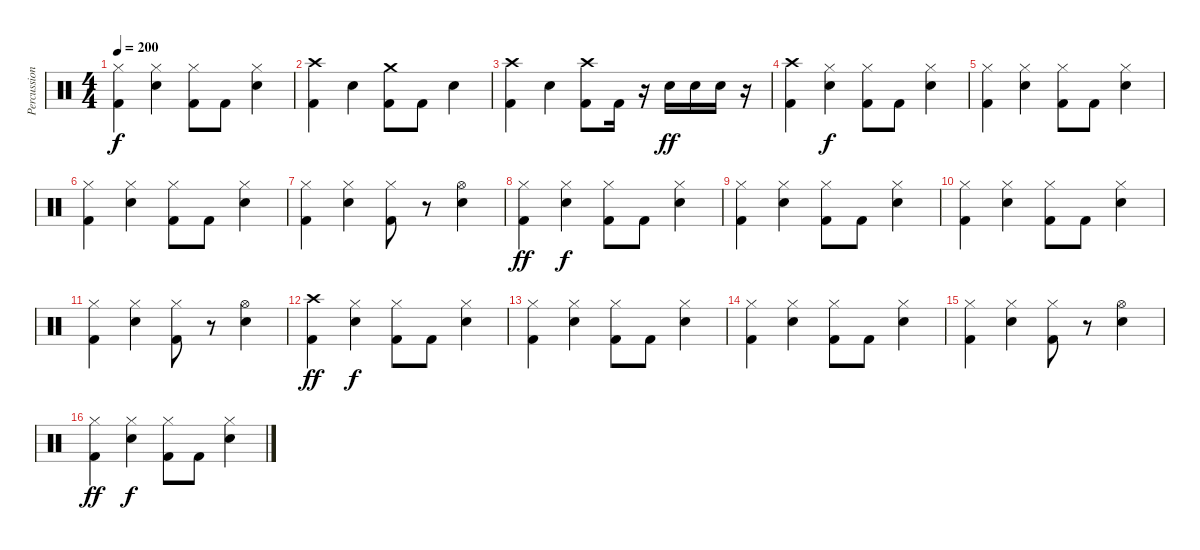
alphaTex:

\track ("Percussion" "Percussion") {instrument percussion}
\staff {score}
\articulation defaults
\ts (4 4)
\tempo 200
\clef neutral
\ks c
("Hi-Hat (closed)" "Kick (hit) 2").4{dy f} ("Hi-Hat (closed)" "Snare (hit) 2").4 ("Hi-Hat (closed)" "Kick (hit) 2").8 "Kick (hit) 2".8 ("Hi-Hat (closed)" "Snare (hit) 2").4 |
("Crash high (hit)" "Kick (hit) 2").4 "Snare (hit) 2".4 ("Crash medium (hit)" "Kick (hit) 2").8 "Kick (hit) 2".8 "Snare (hit) 2".4 |
("Crash high (hit)" "Kick (hit) 2").4 "Snare (hit) 2".4 ("Crash high (hit)" "Kick (hit) 2").8 "Kick (hit) 2".16 r.16 "Snare (hit) 2".16{dy ff} "Snare (hit) 2".16 "Snare (hit) 2".16 r.16 |
("Crash high (hit)" "Kick (hit) 2").4 ("Hi-Hat (closed)" "Snare (hit) 2").4{dy f} ("Hi-Hat (closed)" "Kick (hit) 2").8 "Kick (hit) 2".8 ("Hi-Hat (closed)" "Snare (hit) 2").4 |
("Hi-Hat (closed)" "Kick (hit) 2").4 ("Hi-Hat (closed)" "Snare (hit) 2").4 ("Hi-Hat (closed)" "Kick (hit) 2").8 "Kick (hit) 2".8 ("Hi-Hat (closed)" "Snare (hit) 2").4 |
("Hi-Hat (closed)" "Kick (hit) 2").4 ("Hi-Hat (closed)" "Snare (hit) 2").4 ("Hi-Hat (closed)" "Kick (hit) 2").8 "Kick (hit) 2".8 ("Hi-Hat (closed)" "Snare (hit) 2").4 |
("Hi-Hat (closed)" "Kick (hit) 2").4 ("Hi-Hat (closed)" "Snare (hit) 2").4 ("Hi-Hat (closed)" "Kick (hit) 2").8 r.8 ("Hi-Hat (open)" "Snare (hit) 2").4 |
("Hi-Hat (closed)" "Kick (hit) 2").4{dy ff} ("Hi-Hat (closed)" "Snare (hit) 2").4{dy f} ("Hi-Hat (closed)" "Kick (hit) 2").8 "Kick (hit) 2".8 ("Hi-Hat (closed)" "Snare (hit) 2").4 |
("Hi-Hat (closed)" "Kick (hit) 2").4 ("Hi-Hat (closed)" "Snare (hit) 2").4 ("Hi-Hat (closed)" "Kick (hit) 2").8 "Kick (hit) 2".8 ("Hi-Hat (closed)" "Snare (hit) 2").4 |
("Hi-Hat (closed)" "Kick (hit) 2").4 ("Hi-Hat (closed)" "Snare (hit) 2").4 ("Hi-Hat (closed)" "Kick (hit) 2").8 "Kick (hit) 2".8 ("Hi-Hat (closed)" "Snare (hit) 2").4 |
("Hi-Hat (closed)" "Kick (hit) 2").4 ("Hi-Hat (closed)" "Snare (hit) 2").4 ("Hi-Hat (closed)" "Kick (hit) 2").8 r.8 ("Hi-Hat (open)" "Snare (hit) 2").4 |
("Crash high (hit)" "Kick (hit) 2").4{dy ff} ("Hi-Hat (closed)" "Snare (hit) 2").4{dy f} ("Hi-Hat (closed)" "Kick (hit) 2").8 "Kick (hit) 2".8 ("Hi-Hat (closed)" "Snare (hit) 2").4 |
("Hi-Hat (closed)" "Kick (hit) 2").4 ("Hi-Hat (closed)" "Snare (hit) 2").4 ("Hi-Hat (closed)" "Kick (hit) 2").8 "Kick (hit) 2".8 ("Hi-Hat (closed)" "Snare (hit) 2").4 |
("Hi-Hat (closed)" "Kick (hit) 2").4 ("Hi-Hat (closed)" "Snare (hit) 2").4 ("Hi-Hat (closed)" "Kick (hit) 2").8 "Kick (hit) 2".8 ("Hi-Hat (closed)" "Snare (hit) 2").4 |
("Hi-Hat (closed)" "Kick (hit) 2").4 ("Hi-Hat (closed)" "Snare (hit) 2").4 ("Hi-Hat (closed)" "Kick (hit) 2").8 r.8 ("Hi-Hat (open)" "Snare (hit) 2").4 |
("Hi-Hat (closed)" "Kick (hit) 2").4{dy ff} ("Hi-Hat (closed)" "Snare (hit) 2").4{dy f} ("Hi-Hat (closed)" "Kick (hit) 2").8 "Kick (hit) 2".8 ("Hi-Hat (closed)" "Snare (hit) 2").4
